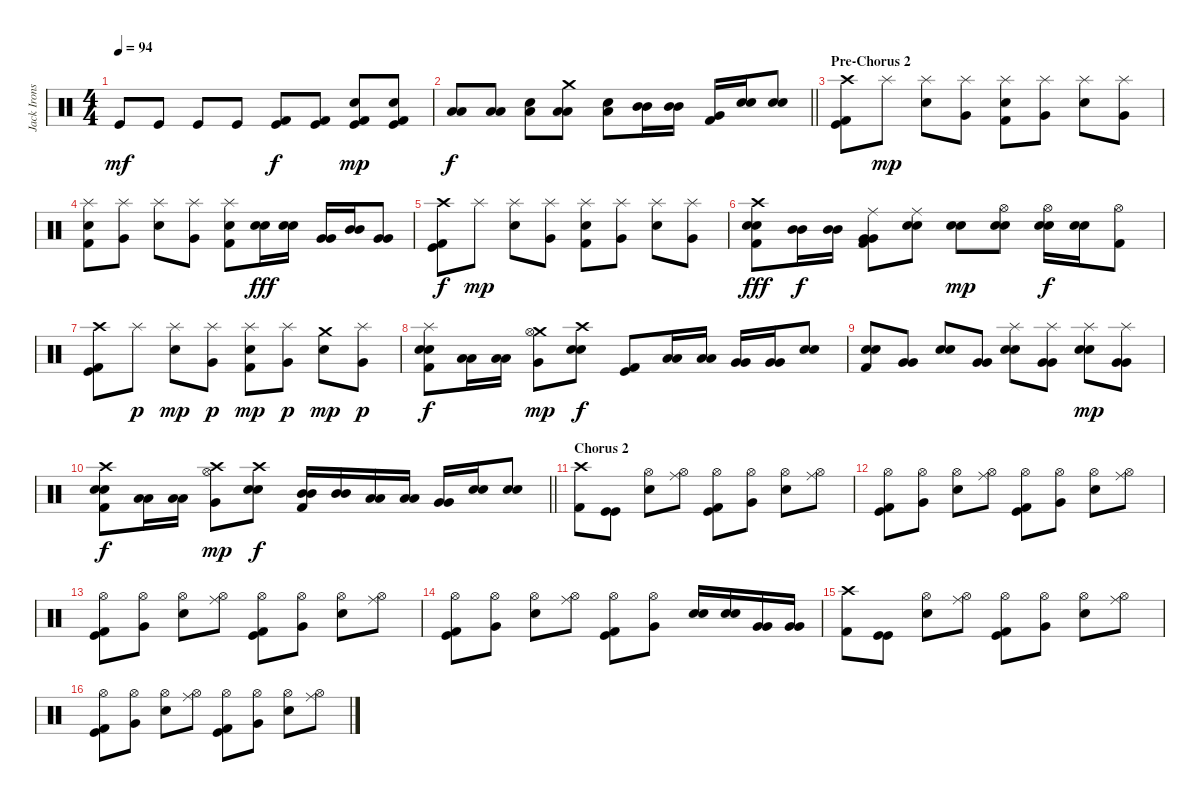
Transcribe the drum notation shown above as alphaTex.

\track ("Jack Irons" "Jack Irons") {instrument percussion}
\staff {score}
\articulation defaults
\ts (4 4)
\tempo 94
\clef neutral
\ks c "Kick (hit)".8{dy mf} "Kick (hit)".8 "Kick (hit)".8 "Kick (hit)".8
("Kick (hit)" "Kick (hit) 2").8{dy f} ("Kick (hit)" "Kick (hit) 2").8 ("Electric Snare (hit)" "Kick (hit)" "Kick (hit) 2").8{dy mp} ("Electric Snare (hit)" "Kick (hit)" "Kick (hit) 2").8 |
\barLineRight lightlight
("Low Tom (hit)" "Low Tom (hit)").8{dy f} ("Low Tom (hit)" "Low Tom (hit)").8 ("Electric Snare (hit)" "Low Tom (hit)").8 ("Crash medium (hit)" "Low Tom (hit)" "Low Tom (hit)").8 ("Electric Snare (hit)" "Low Tom (hit)").8 ("Mid Tom (hit)" "Mid Tom (hit)").16 ("Mid Tom (hit)" "Mid Tom (hit)").16 ("Very Low Tom (hit)" "Kick (hit) 2").16 ("Electric Snare (hit)" "Electric Snare (hit)").16 ("Electric Snare (hit)" "Electric Snare (hit)").8 |
\section ("" "Pre-Chorus 2")
("Crash high (hit)" "Kick (hit)" "Kick (hit) 2").8 "Splash (hit)".8{dy mp} ("Splash (hit)" "Electric Snare (hit)").8 ("Splash (hit)" "Very Low Tom (hit)").8 ("Splash (hit)" "Electric Snare (hit)" "Kick (hit) 2").8 ("Splash (hit)" "Very Low Tom (hit)").8 ("Splash (hit)" "Electric Snare (hit)").8 ("Splash (hit)" "Very Low Tom (hit)").8 |
("Splash (hit)" "Electric Snare (hit)" "Kick (hit) 2").8 ("Splash (hit)" "Very Low Tom (hit)").8 ("Splash (hit)" "Electric Snare (hit)").8 ("Splash (hit)" "Very Low Tom (hit)").8 ("Splash (hit)" "Electric Snare (hit)" "Kick (hit) 2").8 ("Electric Snare (hit)" "Electric Snare (hit)").16{dy fff} ("Electric Snare (hit)" "Electric Snare (hit)").16 ("Very Low Tom (hit)" "Very Low Tom (hit)").16 ("Mid Tom (hit)" "Mid Tom (hit)").16 ("Very Low Tom (hit)" "Very Low Tom (hit)").8 |
("Crash high (hit)" "Kick (hit)" "Kick (hit) 2").8{dy f} "Splash (hit)".8{dy mp} ("Splash (hit)" "Electric Snare (hit)").8 ("Splash (hit)" "Very Low Tom (hit)").8 ("Splash (hit)" "Electric Snare (hit)" "Kick (hit) 2").8 ("Splash (hit)" "Very Low Tom (hit)").8 ("Splash (hit)" "Electric Snare (hit)").8 ("Splash (hit)" "Very Low Tom (hit)").8 |
("Crash high (hit)" "Electric Snare (hit)" "Electric Snare (hit)" "Kick (hit) 2").8{dy fff} ("Mid Tom (hit)" "Mid Tom (hit)").16{dy f} ("Mid Tom (hit)" "Mid Tom (hit)").16 ("Ride (middle)" "Very Low Tom (hit)" "Very Low Tom (hit)" "Kick (hit) 2").8 ("Ride (middle)" "Electric Snare (hit)" "Electric Snare (hit)").8 ("Electric Snare (hit)" "Electric Snare (hit)").8{dy mp} ("Hi-Hat (open)" "Electric Snare (hit)" "Electric Snare (hit)").8 ("Hi-Hat (open)" "Electric Snare (hit)" "Electric Snare (hit)").16{dy f} ("Electric Snare (hit)" "Electric Snare (hit)").16 ("Hi-Hat (open)" "Kick (hit) 2").8 |
("Crash high (hit)" "Kick (hit)" "Kick (hit) 2").8 "Splash (hit)".8{dy p} ("Splash (hit)" "Electric Snare (hit)").8{dy mp} ("Splash (hit)" "Very Low Tom (hit)").8{dy p} ("Splash (hit)" "Electric Snare (hit)" "Kick (hit) 2").8{dy mp} ("Splash (hit)" "Very Low Tom (hit)").8{dy p} ("Crash medium (hit)" "Electric Snare (hit)").8{dy mp} ("Splash (hit)" "Very Low Tom (hit)").8{dy p} |
("Splash (hit)" "Electric Snare (hit)" "Electric Snare (hit)" "Kick (hit) 2").8{dy f} ("Low Tom (hit)" "Low Tom (hit)").16 ("Low Tom (hit)" "Low Tom (hit)").16 ("Crash medium (hit)" "Very Low Tom (hit)" "Hi-Hat (open)").8{dy mp} ("Crash high (hit)" "Electric Snare (hit)" "Electric Snare (hit)").8{dy f} ("Kick (hit)" "Kick (hit) 2").8 ("Low Tom (hit)" "Low Tom (hit)").16 ("Low Tom (hit)" "Low Tom (hit)").16 ("Very Low Tom (hit)" "Very Low Tom (hit)").16 ("Very Low Tom (hit)" "Very Low Tom (hit)").16 ("Electric Snare (hit)" "Electric Snare (hit)").8 |
("Electric Snare (hit)" "Electric Snare (hit)" "Kick (hit) 2").8 ("Very Low Tom (hit)" "Very Low Tom (hit)").8 ("Electric Snare (hit)" "Electric Snare (hit)").8 ("Very Low Tom (hit)" "Very Low Tom (hit)").8 ("Splash (hit)" "Electric Snare (hit)" "Electric Snare (hit)").8 ("Splash (hit)" "Very Low Tom (hit)" "Very Low Tom (hit)").8 ("Splash (hit)" "Electric Snare (hit)" "Electric Snare (hit)").8{dy mp} ("Splash (hit)" "Very Low Tom (hit)" "Very Low Tom (hit)").8 |
\barLineRight lightlight
("Crash high (hit)" "Electric Snare (hit)" "Electric Snare (hit)" "Kick (hit) 2").8{dy f} ("Low Tom (hit)" "Low Tom (hit)").16 ("Low Tom (hit)" "Low Tom (hit)").16 ("Crash high (hit)" "Very Low Tom (hit)" "Hi-Hat (open)").8{dy mp} ("Crash high (hit)" "Electric Snare (hit)" "Electric Snare (hit)").8{dy f} ("Mid Tom (hit)" "Mid Tom (hit)" "Kick (hit) 2").16 ("Mid Tom (hit)" "Mid Tom (hit)").16 ("Low Tom (hit)" "Low Tom (hit)").16 ("Low Tom (hit)" "Low Tom (hit)").16 ("Very Low Tom (hit)" "Very Low Tom (hit)").16 ("Electric Snare (hit)" "Electric Snare (hit)").16 ("Electric Snare (hit)" "Electric Snare (hit)").8 |
\section ("" "Chorus 2")
("Crash high (hit)" "Kick (hit) 2").8 ("Kick (hit)" "Kick (hit)").8 ("Hi-Hat (open)" "Electric Snare (hit)").8 ("Hi-Hat (open)" "Ride (middle)").8 ("Hi-Hat (open)" "Kick (hit)" "Kick (hit) 2").8 ("Hi-Hat (open)" "Very Low Tom (hit)").8 ("Hi-Hat (open)" "Electric Snare (hit)").8 ("Hi-Hat (open)" "Ride (middle)").8 |
("Hi-Hat (open)" "Kick (hit)" "Kick (hit) 2").8 ("Hi-Hat (open)" "Very Low Tom (hit)").8 ("Hi-Hat (open)" "Electric Snare (hit)").8 ("Hi-Hat (open)" "Ride (middle)").8 ("Hi-Hat (open)" "Kick (hit)" "Kick (hit) 2").8 ("Hi-Hat (open)" "Very Low Tom (hit)").8 ("Hi-Hat (open)" "Electric Snare (hit)").8 ("Hi-Hat (open)" "Ride (middle)").8 |
("Hi-Hat (open)" "Kick (hit)" "Kick (hit) 2").8 ("Hi-Hat (open)" "Very Low Tom (hit)").8 ("Hi-Hat (open)" "Electric Snare (hit)").8 ("Hi-Hat (open)" "Ride (middle)").8 ("Hi-Hat (open)" "Kick (hit)" "Kick (hit) 2").8 ("Hi-Hat (open)" "Very Low Tom (hit)").8 ("Hi-Hat (open)" "Electric Snare (hit)").8 ("Hi-Hat (open)" "Ride (middle)").8 |
("Hi-Hat (open)" "Kick (hit)" "Kick (hit) 2").8 ("Hi-Hat (open)" "Very Low Tom (hit)").8 ("Hi-Hat (open)" "Electric Snare (hit)").8 ("Hi-Hat (open)" "Ride (middle)").8 ("Hi-Hat (open)" "Kick (hit)" "Kick (hit) 2").8 ("Hi-Hat (open)" "Very Low Tom (hit)").8 ("Electric Snare (hit)" "Electric Snare (hit)").16 ("Electric Snare (hit)" "Electric Snare (hit)").16 ("Very Low Tom (hit)" "Very Low Tom (hit)").16 ("Very Low Tom (hit)" "Very Low Tom (hit)").16 |
("Crash high (hit)" "Kick (hit) 2").8 ("Kick (hit)" "Kick (hit)").8 ("Hi-Hat (open)" "Electric Snare (hit)").8 ("Hi-Hat (open)" "Ride (middle)").8 ("Hi-Hat (open)" "Kick (hit)" "Kick (hit) 2").8 ("Hi-Hat (open)" "Very Low Tom (hit)").8 ("Hi-Hat (open)" "Electric Snare (hit)").8 ("Hi-Hat (open)" "Ride (middle)").8 |
("Hi-Hat (open)" "Kick (hit)" "Kick (hit) 2").8 ("Hi-Hat (open)" "Very Low Tom (hit)").8 ("Hi-Hat (open)" "Electric Snare (hit)").8 ("Hi-Hat (open)" "Ride (middle)").8 ("Hi-Hat (open)" "Kick (hit)" "Kick (hit) 2").8 ("Hi-Hat (open)" "Very Low Tom (hit)").8 ("Hi-Hat (open)" "Electric Snare (hit)").8 ("Hi-Hat (open)" "Ride (middle)").8
